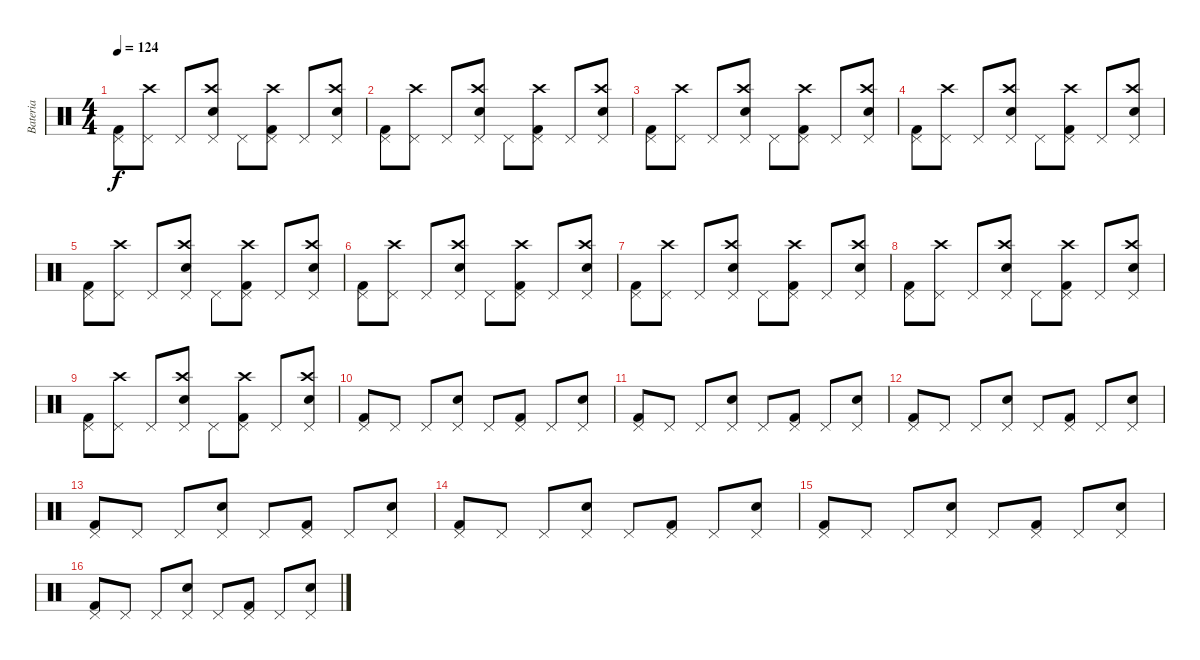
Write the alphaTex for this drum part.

\track ("Bateria" "Bateria") {instrument percussion}
\staff {score}
\articulation defaults
\ts (4 4)
\tempo 124
\clef neutral
\ks c
("Pedal Hi-Hat (hit)" "Kick (hit) 2").8{dy f} ("Pedal Hi-Hat (hit)" "Crash high (hit)").8 "Pedal Hi-Hat (hit)".8 ("Pedal Hi-Hat (hit)" "Electric Snare (hit)" "Crash high (hit)").8 "Pedal Hi-Hat (hit)".8 ("Pedal Hi-Hat (hit)" "Kick (hit) 2" "Crash high (hit)").8 "Pedal Hi-Hat (hit)".8 ("Pedal Hi-Hat (hit)" "Electric Snare (hit)" "Crash high (hit)").8 |
("Pedal Hi-Hat (hit)" "Kick (hit) 2").8 ("Pedal Hi-Hat (hit)" "Crash high (hit)").8 "Pedal Hi-Hat (hit)".8 ("Pedal Hi-Hat (hit)" "Electric Snare (hit)" "Crash high (hit)").8 "Pedal Hi-Hat (hit)".8 ("Pedal Hi-Hat (hit)" "Kick (hit) 2" "Crash high (hit)").8 "Pedal Hi-Hat (hit)".8 ("Pedal Hi-Hat (hit)" "Electric Snare (hit)" "Crash high (hit)").8 |
("Pedal Hi-Hat (hit)" "Kick (hit) 2").8 ("Pedal Hi-Hat (hit)" "Crash high (hit)").8 "Pedal Hi-Hat (hit)".8 ("Pedal Hi-Hat (hit)" "Electric Snare (hit)" "Crash high (hit)").8 "Pedal Hi-Hat (hit)".8 ("Pedal Hi-Hat (hit)" "Kick (hit) 2" "Crash high (hit)").8 "Pedal Hi-Hat (hit)".8 ("Pedal Hi-Hat (hit)" "Electric Snare (hit)" "Crash high (hit)").8 |
("Pedal Hi-Hat (hit)" "Kick (hit) 2").8 ("Pedal Hi-Hat (hit)" "Crash high (hit)").8 "Pedal Hi-Hat (hit)".8 ("Pedal Hi-Hat (hit)" "Electric Snare (hit)" "Crash high (hit)").8 "Pedal Hi-Hat (hit)".8 ("Pedal Hi-Hat (hit)" "Kick (hit) 2" "Crash high (hit)").8 "Pedal Hi-Hat (hit)".8 ("Pedal Hi-Hat (hit)" "Electric Snare (hit)" "Crash high (hit)").8 |
("Pedal Hi-Hat (hit)" "Kick (hit) 2").8 ("Pedal Hi-Hat (hit)" "Crash high (hit)").8 "Pedal Hi-Hat (hit)".8 ("Pedal Hi-Hat (hit)" "Electric Snare (hit)" "Crash high (hit)").8 "Pedal Hi-Hat (hit)".8 ("Pedal Hi-Hat (hit)" "Kick (hit) 2" "Crash high (hit)").8 "Pedal Hi-Hat (hit)".8 ("Pedal Hi-Hat (hit)" "Electric Snare (hit)" "Crash high (hit)").8 |
("Pedal Hi-Hat (hit)" "Kick (hit) 2").8 ("Pedal Hi-Hat (hit)" "Crash high (hit)").8 "Pedal Hi-Hat (hit)".8 ("Pedal Hi-Hat (hit)" "Electric Snare (hit)" "Crash high (hit)").8 "Pedal Hi-Hat (hit)".8 ("Pedal Hi-Hat (hit)" "Kick (hit) 2" "Crash high (hit)").8 "Pedal Hi-Hat (hit)".8 ("Pedal Hi-Hat (hit)" "Electric Snare (hit)" "Crash high (hit)").8 |
("Pedal Hi-Hat (hit)" "Kick (hit) 2").8 ("Pedal Hi-Hat (hit)" "Crash high (hit)").8 "Pedal Hi-Hat (hit)".8 ("Pedal Hi-Hat (hit)" "Electric Snare (hit)" "Crash high (hit)").8 "Pedal Hi-Hat (hit)".8 ("Pedal Hi-Hat (hit)" "Kick (hit) 2" "Crash high (hit)").8 "Pedal Hi-Hat (hit)".8 ("Pedal Hi-Hat (hit)" "Electric Snare (hit)" "Crash high (hit)").8 |
("Pedal Hi-Hat (hit)" "Kick (hit) 2").8 ("Pedal Hi-Hat (hit)" "Crash high (hit)").8 "Pedal Hi-Hat (hit)".8 ("Pedal Hi-Hat (hit)" "Electric Snare (hit)" "Crash high (hit)").8 "Pedal Hi-Hat (hit)".8 ("Pedal Hi-Hat (hit)" "Kick (hit) 2" "Crash high (hit)").8 "Pedal Hi-Hat (hit)".8 ("Pedal Hi-Hat (hit)" "Electric Snare (hit)" "Crash high (hit)").8 |
("Pedal Hi-Hat (hit)" "Kick (hit) 2").8 ("Pedal Hi-Hat (hit)" "Crash high (hit)").8 "Pedal Hi-Hat (hit)".8 ("Pedal Hi-Hat (hit)" "Electric Snare (hit)" "Crash high (hit)").8 "Pedal Hi-Hat (hit)".8 ("Pedal Hi-Hat (hit)" "Kick (hit) 2" "Crash high (hit)").8 "Pedal Hi-Hat (hit)".8 ("Pedal Hi-Hat (hit)" "Electric Snare (hit)" "Crash high (hit)").8 |
("Pedal Hi-Hat (hit)" "Kick (hit) 2").8 "Pedal Hi-Hat (hit)".8 "Pedal Hi-Hat (hit)".8 ("Pedal Hi-Hat (hit)" "Electric Snare (hit)").8 "Pedal Hi-Hat (hit)".8 ("Pedal Hi-Hat (hit)" "Kick (hit) 2").8 "Pedal Hi-Hat (hit)".8 ("Pedal Hi-Hat (hit)" "Electric Snare (hit)").8 |
("Pedal Hi-Hat (hit)" "Kick (hit) 2").8 "Pedal Hi-Hat (hit)".8 "Pedal Hi-Hat (hit)".8 ("Pedal Hi-Hat (hit)" "Electric Snare (hit)").8 "Pedal Hi-Hat (hit)".8 ("Pedal Hi-Hat (hit)" "Kick (hit) 2").8 "Pedal Hi-Hat (hit)".8 ("Pedal Hi-Hat (hit)" "Electric Snare (hit)").8 |
("Pedal Hi-Hat (hit)" "Kick (hit) 2").8 "Pedal Hi-Hat (hit)".8 "Pedal Hi-Hat (hit)".8 ("Pedal Hi-Hat (hit)" "Electric Snare (hit)").8 "Pedal Hi-Hat (hit)".8 ("Pedal Hi-Hat (hit)" "Kick (hit) 2").8 "Pedal Hi-Hat (hit)".8 ("Pedal Hi-Hat (hit)" "Electric Snare (hit)").8 |
("Pedal Hi-Hat (hit)" "Kick (hit) 2").8 "Pedal Hi-Hat (hit)".8 "Pedal Hi-Hat (hit)".8 ("Pedal Hi-Hat (hit)" "Electric Snare (hit)").8 "Pedal Hi-Hat (hit)".8 ("Pedal Hi-Hat (hit)" "Kick (hit) 2").8 "Pedal Hi-Hat (hit)".8 ("Pedal Hi-Hat (hit)" "Electric Snare (hit)").8 |
("Pedal Hi-Hat (hit)" "Kick (hit) 2").8 "Pedal Hi-Hat (hit)".8 "Pedal Hi-Hat (hit)".8 ("Pedal Hi-Hat (hit)" "Electric Snare (hit)").8 "Pedal Hi-Hat (hit)".8 ("Pedal Hi-Hat (hit)" "Kick (hit) 2").8 "Pedal Hi-Hat (hit)".8 ("Pedal Hi-Hat (hit)" "Electric Snare (hit)").8 |
("Pedal Hi-Hat (hit)" "Kick (hit) 2").8 "Pedal Hi-Hat (hit)".8 "Pedal Hi-Hat (hit)".8 ("Pedal Hi-Hat (hit)" "Electric Snare (hit)").8 "Pedal Hi-Hat (hit)".8 ("Pedal Hi-Hat (hit)" "Kick (hit) 2").8 "Pedal Hi-Hat (hit)".8 ("Pedal Hi-Hat (hit)" "Electric Snare (hit)").8 |
("Pedal Hi-Hat (hit)" "Kick (hit) 2").8 "Pedal Hi-Hat (hit)".8 "Pedal Hi-Hat (hit)".8 ("Pedal Hi-Hat (hit)" "Electric Snare (hit)").8 "Pedal Hi-Hat (hit)".8 ("Pedal Hi-Hat (hit)" "Kick (hit) 2").8 "Pedal Hi-Hat (hit)".8 ("Pedal Hi-Hat (hit)" "Electric Snare (hit)").8
